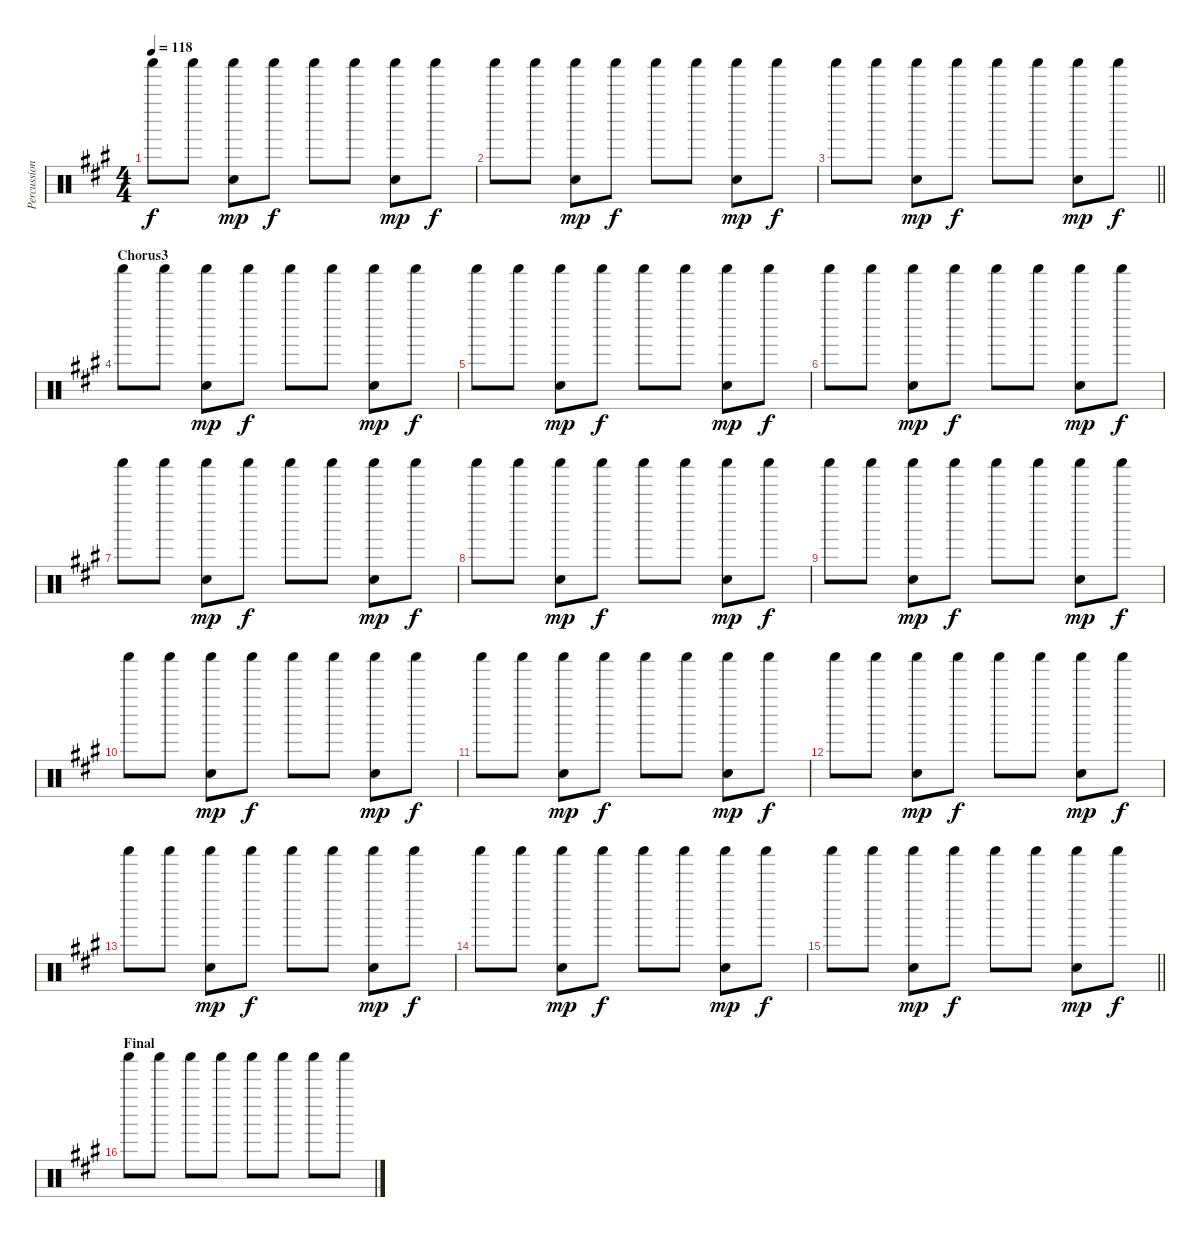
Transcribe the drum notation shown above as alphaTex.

\track ("Percussions" "Percussion") {instrument percussion}
\staff {score}
\articulation defaults
\ts (4 4)
\tempo 118
\clef neutral
\ks f#minor "Shaker (hit)".8{dy f} "Shaker (hit)".8
("Shaker (hit)" "Hand Clap (hit)").8{dy mp} "Shaker (hit)".8{dy f} "Shaker (hit)".8 "Shaker (hit)".8 ("Shaker (hit)" "Hand Clap (hit)").8{dy mp} "Shaker (hit)".8{dy f} |
"Shaker (hit)".8 "Shaker (hit)".8 ("Shaker (hit)" "Hand Clap (hit)").8{dy mp} "Shaker (hit)".8{dy f} "Shaker (hit)".8 "Shaker (hit)".8 ("Shaker (hit)" "Hand Clap (hit)").8{dy mp} "Shaker (hit)".8{dy f} |
\barLineRight lightlight "Shaker (hit)".8 "Shaker (hit)".8
("Shaker (hit)" "Hand Clap (hit)").8{dy mp} "Shaker (hit)".8{dy f} "Shaker (hit)".8 "Shaker (hit)".8 ("Shaker (hit)" "Hand Clap (hit)").8{dy mp} "Shaker (hit)".8{dy f} |
\section ("" "Chorus3")
"Shaker (hit)".8 "Shaker (hit)".8 ("Shaker (hit)" "Hand Clap (hit)").8{dy mp} "Shaker (hit)".8{dy f} "Shaker (hit)".8 "Shaker (hit)".8 ("Shaker (hit)" "Hand Clap (hit)").8{dy mp} "Shaker (hit)".8{dy f} |
"Shaker (hit)".8 "Shaker (hit)".8 ("Shaker (hit)" "Hand Clap (hit)").8{dy mp} "Shaker (hit)".8{dy f} "Shaker (hit)".8 "Shaker (hit)".8 ("Shaker (hit)" "Hand Clap (hit)").8{dy mp} "Shaker (hit)".8{dy f} |
"Shaker (hit)".8 "Shaker (hit)".8 ("Shaker (hit)" "Hand Clap (hit)").8{dy mp} "Shaker (hit)".8{dy f} "Shaker (hit)".8 "Shaker (hit)".8 ("Shaker (hit)" "Hand Clap (hit)").8{dy mp} "Shaker (hit)".8{dy f} |
"Shaker (hit)".8 "Shaker (hit)".8 ("Shaker (hit)" "Hand Clap (hit)").8{dy mp} "Shaker (hit)".8{dy f} "Shaker (hit)".8 "Shaker (hit)".8 ("Shaker (hit)" "Hand Clap (hit)").8{dy mp} "Shaker (hit)".8{dy f} |
"Shaker (hit)".8 "Shaker (hit)".8 ("Shaker (hit)" "Hand Clap (hit)").8{dy mp} "Shaker (hit)".8{dy f} "Shaker (hit)".8 "Shaker (hit)".8 ("Shaker (hit)" "Hand Clap (hit)").8{dy mp} "Shaker (hit)".8{dy f} |
"Shaker (hit)".8 "Shaker (hit)".8 ("Shaker (hit)" "Hand Clap (hit)").8{dy mp} "Shaker (hit)".8{dy f} "Shaker (hit)".8 "Shaker (hit)".8 ("Shaker (hit)" "Hand Clap (hit)").8{dy mp} "Shaker (hit)".8{dy f} |
"Shaker (hit)".8 "Shaker (hit)".8 ("Shaker (hit)" "Hand Clap (hit)").8{dy mp} "Shaker (hit)".8{dy f} "Shaker (hit)".8 "Shaker (hit)".8 ("Shaker (hit)" "Hand Clap (hit)").8{dy mp} "Shaker (hit)".8{dy f} |
"Shaker (hit)".8 "Shaker (hit)".8 ("Shaker (hit)" "Hand Clap (hit)").8{dy mp} "Shaker (hit)".8{dy f} "Shaker (hit)".8 "Shaker (hit)".8 ("Shaker (hit)" "Hand Clap (hit)").8{dy mp} "Shaker (hit)".8{dy f} |
"Shaker (hit)".8 "Shaker (hit)".8 ("Shaker (hit)" "Hand Clap (hit)").8{dy mp} "Shaker (hit)".8{dy f} "Shaker (hit)".8 "Shaker (hit)".8 ("Shaker (hit)" "Hand Clap (hit)").8{dy mp} "Shaker (hit)".8{dy f} |
"Shaker (hit)".8 "Shaker (hit)".8 ("Shaker (hit)" "Hand Clap (hit)").8{dy mp} "Shaker (hit)".8{dy f} "Shaker (hit)".8 "Shaker (hit)".8 ("Shaker (hit)" "Hand Clap (hit)").8{dy mp} "Shaker (hit)".8{dy f} |
"Shaker (hit)".8 "Shaker (hit)".8 ("Shaker (hit)" "Hand Clap (hit)").8{dy mp} "Shaker (hit)".8{dy f} "Shaker (hit)".8 "Shaker (hit)".8 ("Shaker (hit)" "Hand Clap (hit)").8{dy mp} "Shaker (hit)".8{dy f} |
\barLineRight lightlight "Shaker (hit)".8 "Shaker (hit)".8
("Shaker (hit)" "Hand Clap (hit)").8{dy mp} "Shaker (hit)".8{dy f} "Shaker (hit)".8 "Shaker (hit)".8 ("Shaker (hit)" "Hand Clap (hit)").8{dy mp} "Shaker (hit)".8{dy f} |
\section ("" "Final")
"Shaker (hit)".8 "Shaker (hit)".8 "Shaker (hit)".8 "Shaker (hit)".8 "Shaker (hit)".8 "Shaker (hit)".8 "Shaker (hit)".8 "Shaker (hit)".8
